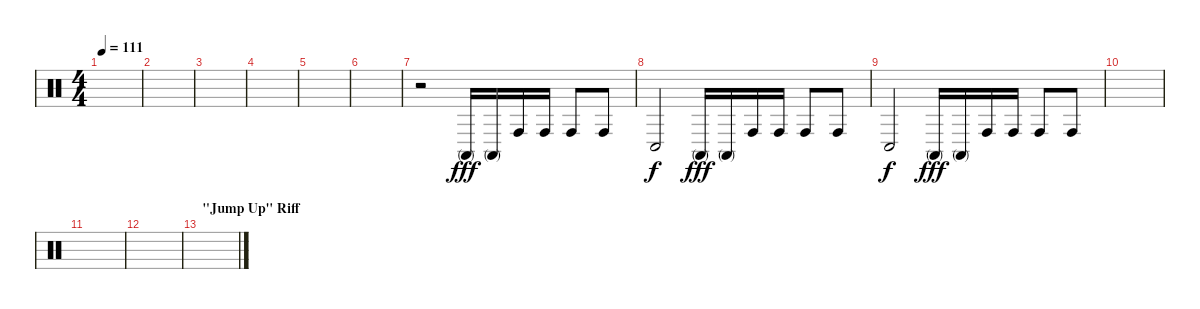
\track "" {instrument percussion}
\staff {score}
\articulation defaults
\ts (4 4)
\tempo 111
\clef neutral
\ks c
|
|
|
|
|
|
r.2 "Conga high (mute)".16{dy fff} "Conga high (mute)".16 "Conga high (hit)".16 "Conga high (hit)".16 "Conga high (hit)".8 "Conga high (hit)".8 |
"Conga low (hit)".2{dy f} "Conga high (mute)".16{dy fff} "Conga high (mute)".16 "Conga high (hit)".16 "Conga high (hit)".16 "Conga high (hit)".8 "Conga high (hit)".8 |
"Conga low (hit)".2{dy f} "Conga high (mute)".16{dy fff} "Conga high (mute)".16 "Conga high (hit)".16 "Conga high (hit)".16 "Conga high (hit)".8 "Conga high (hit)".8 |
|
|
|
\section ("" "\"Jump Up\" Riff")
